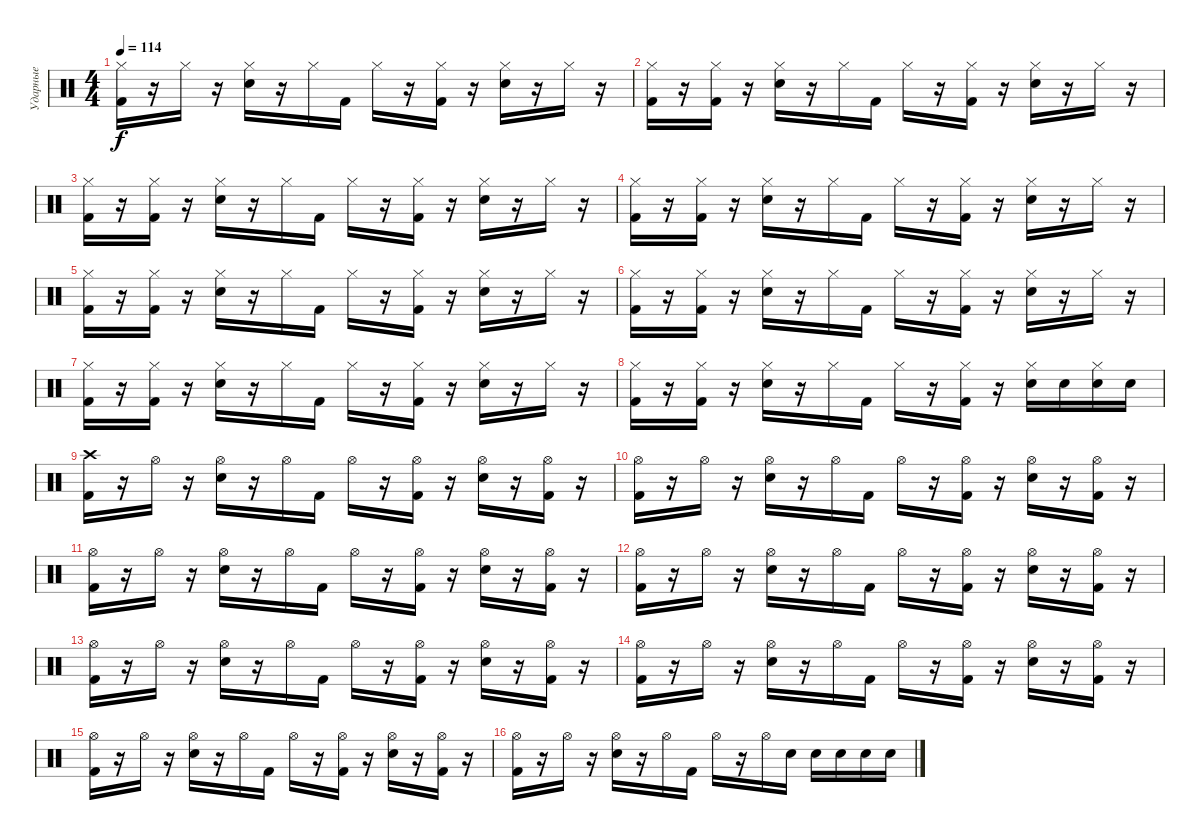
\track ("Ударные" "Ударные") {instrument percussion}
\staff {score}
\articulation defaults
\ts (4 4)
\tempo 114
\clef neutral
\ks c
("Kick (hit) 2" "Hi-Hat (closed)").16{dy f} r.16 "Hi-Hat (closed)".16 r.16 ("Electric Snare (hit)" "Hi-Hat (closed)").16 r.16 "Hi-Hat (closed)".16 "Kick (hit) 2".16 "Hi-Hat (closed)".16 r.16 ("Kick (hit) 2" "Hi-Hat (closed)").16 r.16 ("Electric Snare (hit)" "Hi-Hat (closed)").16 r.16 "Hi-Hat (closed)".16 r.16 |
("Kick (hit) 2" "Hi-Hat (closed)").16 r.16 ("Kick (hit) 2" "Hi-Hat (closed)").16 r.16 ("Electric Snare (hit)" "Hi-Hat (closed)").16 r.16 "Hi-Hat (closed)".16 "Kick (hit) 2".16 "Hi-Hat (closed)".16 r.16 ("Kick (hit) 2" "Hi-Hat (closed)").16 r.16 ("Electric Snare (hit)" "Hi-Hat (closed)").16 r.16 "Hi-Hat (closed)".16 r.16 |
("Kick (hit) 2" "Hi-Hat (closed)").16 r.16 ("Kick (hit) 2" "Hi-Hat (closed)").16 r.16 ("Electric Snare (hit)" "Hi-Hat (closed)").16 r.16 "Hi-Hat (closed)".16 "Kick (hit) 2".16 "Hi-Hat (closed)".16 r.16 ("Kick (hit) 2" "Hi-Hat (closed)").16 r.16 ("Electric Snare (hit)" "Hi-Hat (closed)").16 r.16 "Hi-Hat (closed)".16 r.16 |
("Kick (hit) 2" "Hi-Hat (closed)").16 r.16 ("Kick (hit) 2" "Hi-Hat (closed)").16 r.16 ("Electric Snare (hit)" "Hi-Hat (closed)").16 r.16 "Hi-Hat (closed)".16 "Kick (hit) 2".16 "Hi-Hat (closed)".16 r.16 ("Kick (hit) 2" "Hi-Hat (closed)").16 r.16 ("Electric Snare (hit)" "Hi-Hat (closed)").16 r.16 "Hi-Hat (closed)".16 r.16 |
("Kick (hit) 2" "Hi-Hat (closed)").16 r.16 ("Kick (hit) 2" "Hi-Hat (closed)").16 r.16 ("Electric Snare (hit)" "Hi-Hat (closed)").16 r.16 "Hi-Hat (closed)".16 "Kick (hit) 2".16 "Hi-Hat (closed)".16 r.16 ("Kick (hit) 2" "Hi-Hat (closed)").16 r.16 ("Electric Snare (hit)" "Hi-Hat (closed)").16 r.16 "Hi-Hat (closed)".16 r.16 |
("Kick (hit) 2" "Hi-Hat (closed)").16 r.16 ("Kick (hit) 2" "Hi-Hat (closed)").16 r.16 ("Electric Snare (hit)" "Hi-Hat (closed)").16 r.16 "Hi-Hat (closed)".16 "Kick (hit) 2".16 "Hi-Hat (closed)".16 r.16 ("Kick (hit) 2" "Hi-Hat (closed)").16 r.16 ("Electric Snare (hit)" "Hi-Hat (closed)").16 r.16 "Hi-Hat (closed)".16 r.16 |
("Kick (hit) 2" "Hi-Hat (closed)").16 r.16 ("Kick (hit) 2" "Hi-Hat (closed)").16 r.16 ("Electric Snare (hit)" "Hi-Hat (closed)").16 r.16 "Hi-Hat (closed)".16 "Kick (hit) 2".16 "Hi-Hat (closed)".16 r.16 ("Kick (hit) 2" "Hi-Hat (closed)").16 r.16 ("Electric Snare (hit)" "Hi-Hat (closed)").16 r.16 "Hi-Hat (closed)".16 r.16 |
("Kick (hit) 2" "Hi-Hat (closed)").16 r.16 ("Kick (hit) 2" "Hi-Hat (closed)").16 r.16 ("Electric Snare (hit)" "Hi-Hat (closed)").16 r.16 "Hi-Hat (closed)".16 "Kick (hit) 2".16 "Hi-Hat (closed)".16 r.16 ("Kick (hit) 2" "Hi-Hat (closed)").16 r.16 ("Electric Snare (hit)" "Hi-Hat (closed)").16 "Electric Snare (hit)".16 ("Electric Snare (hit)" "Hi-Hat (closed)").16 "Electric Snare (hit)".16 |
("Kick (hit) 2" "Crash high (hit)").16 r.16 "Hi-Hat (open)".16 r.16 ("Electric Snare (hit)" "Hi-Hat (open)").16 r.16 "Hi-Hat (open)".16 "Kick (hit) 2".16 "Hi-Hat (open)".16 r.16 ("Kick (hit) 2" "Hi-Hat (open)").16 r.16 ("Electric Snare (hit)" "Hi-Hat (open)").16 r.16 ("Kick (hit) 2" "Hi-Hat (open)").16 r.16 |
("Kick (hit) 2" "Hi-Hat (open)").16 r.16 "Hi-Hat (open)".16 r.16 ("Electric Snare (hit)" "Hi-Hat (open)").16 r.16 "Hi-Hat (open)".16 "Kick (hit) 2".16 "Hi-Hat (open)".16 r.16 ("Kick (hit) 2" "Hi-Hat (open)").16 r.16 ("Electric Snare (hit)" "Hi-Hat (open)").16 r.16 ("Kick (hit) 2" "Hi-Hat (open)").16 r.16 |
("Kick (hit) 2" "Hi-Hat (open)").16 r.16 "Hi-Hat (open)".16 r.16 ("Electric Snare (hit)" "Hi-Hat (open)").16 r.16 "Hi-Hat (open)".16 "Kick (hit) 2".16 "Hi-Hat (open)".16 r.16 ("Kick (hit) 2" "Hi-Hat (open)").16 r.16 ("Electric Snare (hit)" "Hi-Hat (open)").16 r.16 ("Kick (hit) 2" "Hi-Hat (open)").16 r.16 |
("Kick (hit) 2" "Hi-Hat (open)").16 r.16 "Hi-Hat (open)".16 r.16 ("Electric Snare (hit)" "Hi-Hat (open)").16 r.16 "Hi-Hat (open)".16 "Kick (hit) 2".16 "Hi-Hat (open)".16 r.16 ("Kick (hit) 2" "Hi-Hat (open)").16 r.16 ("Electric Snare (hit)" "Hi-Hat (open)").16 r.16 ("Kick (hit) 2" "Hi-Hat (open)").16 r.16 |
("Kick (hit) 2" "Hi-Hat (open)").16 r.16 "Hi-Hat (open)".16 r.16 ("Electric Snare (hit)" "Hi-Hat (open)").16 r.16 "Hi-Hat (open)".16 "Kick (hit) 2".16 "Hi-Hat (open)".16 r.16 ("Kick (hit) 2" "Hi-Hat (open)").16 r.16 ("Electric Snare (hit)" "Hi-Hat (open)").16 r.16 ("Kick (hit) 2" "Hi-Hat (open)").16 r.16 |
("Kick (hit) 2" "Hi-Hat (open)").16 r.16 "Hi-Hat (open)".16 r.16 ("Electric Snare (hit)" "Hi-Hat (open)").16 r.16 "Hi-Hat (open)".16 "Kick (hit) 2".16 "Hi-Hat (open)".16 r.16 ("Kick (hit) 2" "Hi-Hat (open)").16 r.16 ("Electric Snare (hit)" "Hi-Hat (open)").16 r.16 ("Kick (hit) 2" "Hi-Hat (open)").16 r.16 |
("Kick (hit) 2" "Hi-Hat (open)").16 r.16 "Hi-Hat (open)".16 r.16 ("Electric Snare (hit)" "Hi-Hat (open)").16 r.16 "Hi-Hat (open)".16 "Kick (hit) 2".16 "Hi-Hat (open)".16 r.16 ("Kick (hit) 2" "Hi-Hat (open)").16 r.16 ("Electric Snare (hit)" "Hi-Hat (open)").16 r.16 ("Kick (hit) 2" "Hi-Hat (open)").16 r.16 |
("Kick (hit) 2" "Hi-Hat (open)").16 r.16 "Hi-Hat (open)".16 r.16 ("Electric Snare (hit)" "Hi-Hat (open)").16 r.16 "Hi-Hat (open)".16 "Kick (hit) 2".16 "Hi-Hat (open)".16 r.16 "Hi-Hat (open)".16 "Electric Snare (hit)".16 "Electric Snare (hit)".16 "Electric Snare (hit)".16 "Electric Snare (hit)".16 "Electric Snare (hit)".16
